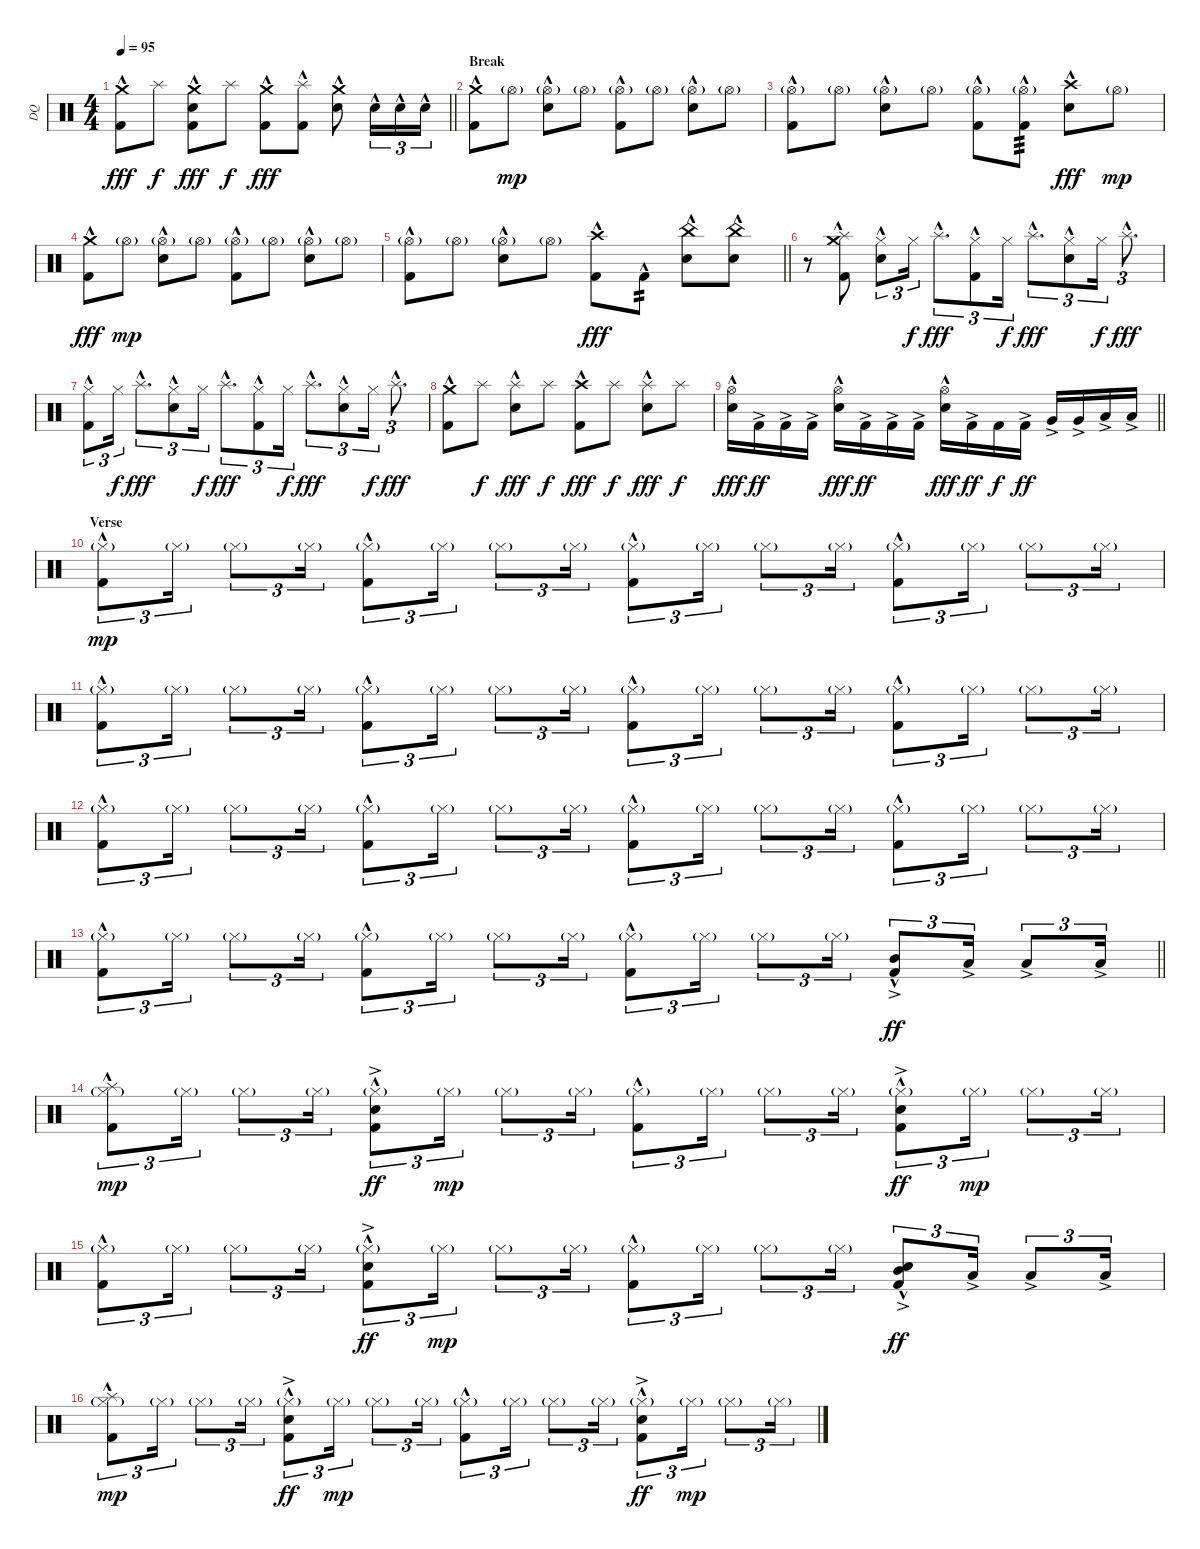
\track ("DQ" "DQ") {instrument percussion}
\staff {score}
\articulation defaults
\ts (4 4)
\tempo 95
\clef neutral
\barLineRight lightlight
\ks c
("Kick (hit) 2"{hac} "Crash medium (hit)").8{dy fff} "Splash (hit)".8{dy f} ("Kick (hit) 2"{hac} "Snare (hit) 2"{hac} "Crash medium (hit)").8{dy fff} "Splash (hit)".8{dy f} ("Kick (hit) 2"{hac} "Crash medium (hit)").8{dy fff} ("Kick (hit) 2"{hac} "Splash (hit)").8 ("Snare (hit) 2"{hac} "Crash medium (hit)").8 "Snare (hit) 2"{hac}.16{tu (3 2)} "Snare (hit) 2"{hac}.16{tu (3 2)} "Snare (hit) 2"{hac}.16{tu (3 2)} |
\section ("" "Break")
("Kick (hit) 2"{hac} "Crash medium (hit)").8 "Hi-Hat (open)"{g}.8{dy mp} ("Snare (hit) 2"{hac} "Hi-Hat (open)"{g}).8 "Hi-Hat (open)"{g}.8 ("Kick (hit) 2"{hac} "Hi-Hat (open)"{g}).8 "Hi-Hat (open)"{g}.8 ("Snare (hit) 2"{hac} "Hi-Hat (open)"{g}).8 "Hi-Hat (open)"{g}.8 |
("Kick (hit) 2"{hac} "Hi-Hat (open)"{g}).8 "Hi-Hat (open)"{g}.8 ("Snare (hit) 2"{hac} "Hi-Hat (open)"{g}).8 "Hi-Hat (open)"{g}.8 ("Kick (hit) 2"{hac} "Hi-Hat (open)"{g}).8 ("Kick (hit) 2"{hac} "Hi-Hat (open)"{g}).8{tp 3} ("Snare (hit) 2"{hac} "Crash high (hit)").8{dy fff} "Hi-Hat (open)"{g}.8{dy mp} |
("Kick (hit) 2"{hac} "Crash medium (hit)").8{dy fff} "Hi-Hat (open)"{g}.8{dy mp} ("Snare (hit) 2"{hac} "Hi-Hat (open)"{g}).8 "Hi-Hat (open)"{g}.8 ("Kick (hit) 2"{hac} "Hi-Hat (open)"{g}).8 "Hi-Hat (open)"{g}.8 ("Snare (hit) 2"{hac} "Hi-Hat (open)"{g}).8 "Hi-Hat (open)"{g}.8 |
\barLineRight lightlight
("Kick (hit) 2"{hac} "Hi-Hat (open)"{g}).8 "Hi-Hat (open)"{g}.8 ("Snare (hit) 2"{hac} "Hi-Hat (open)"{g}).8 "Hi-Hat (open)"{g}.8 ("Kick (hit) 2"{hac} "Crash high (hit)").8{dy fff} "Kick (hit) 2"{hac}.8{tp 2} ("Snare (hit) 2"{hac} "China (hit)").8 ("Snare (hit) 2"{hac} "China (hit)").8 |
\section ("" "")
r.8 ("Kick (hit) 2"{hac} "Splash (hit)" "Crash medium (hit)").8 ("Snare (hit) 2"{hac} "Hi-Hat (closed)").8{tu (3 2)} "Hi-Hat (closed)".16{tu (3 2) dy f} "Splash (hit)"{hac}.8{d tu (3 2) dy fff} ("Kick (hit) 2"{hac} "Hi-Hat (closed)").8{tu (3 2)} "Hi-Hat (closed)".16{tu (3 2) dy f} "Splash (hit)"{hac}.8{d tu (3 2) dy fff} ("Snare (hit) 2"{hac} "Hi-Hat (closed)").8{tu (3 2)} "Hi-Hat (closed)".16{tu (3 2) dy f} "Splash (hit)"{hac}.8{d tu (3 2) dy fff} |
("Kick (hit) 2"{hac} "Hi-Hat (closed)").8{tu (3 2)} "Hi-Hat (closed)".16{tu (3 2) dy f} "Splash (hit)"{hac}.8{d tu (3 2) dy fff} ("Snare (hit) 2"{hac} "Hi-Hat (closed)").8{tu (3 2)} "Hi-Hat (closed)".16{tu (3 2) dy f} "Splash (hit)"{hac}.8{d tu (3 2) dy fff} ("Kick (hit) 2"{hac} "Hi-Hat (closed)").8{tu (3 2)} "Hi-Hat (closed)".16{tu (3 2) dy f} "Splash (hit)"{hac}.8{d tu (3 2) dy fff} ("Snare (hit) 2"{hac} "Hi-Hat (closed)").8{tu (3 2)} "Hi-Hat (closed)".16{tu (3 2) dy f} "Splash (hit)"{hac}.8{d tu (3 2) dy fff} |
("Kick (hit) 2"{hac} "Crash medium (hit)").8 "Splash (hit)".8{dy f} ("Snare (hit) 2"{hac} "Splash (hit)").8{dy fff} "Splash (hit)".8{dy f} ("Kick (hit) 2"{hac} "Crash high (hit)").8{dy fff} "Splash (hit)".8{dy f} ("Snare (hit) 2"{hac} "Splash (hit)").8{dy fff} "Splash (hit)".8{dy f} |
\barLineRight lightlight
("Snare (hit) 2"{hac} "Hi-Hat (open)").16{dy fff} "Kick (hit) 2"{ac}.16{dy ff} "Kick (hit) 2"{ac}.16 "Kick (hit) 2"{ac}.16 ("Snare (hit) 2"{hac} "Hi-Hat (open)").16{dy fff} "Kick (hit) 2"{ac}.16{dy ff} "Kick (hit) 2"{ac}.16 "Kick (hit) 2"{ac}.16 ("Snare (hit) 2"{hac} "Hi-Hat (open)").16{dy fff} "Kick (hit) 2"{ac}.16{dy ff} "Kick (hit) 2".16{dy f} "Kick (hit) 2"{ac}.16{dy ff} "Very Low Tom (hit)"{ac}.16 "Very Low Tom (hit)"{ac}.16 "Low Floor Tom (hit)"{ac}.16 "Low Floor Tom (hit)"{ac}.16 |
\section ("" "Verse")
("Kick (hit) 2"{hac} "Hi-Hat (closed)"{g}).8{tu (3 2) dy mp} "Hi-Hat (closed)"{g}.16{tu (3 2)} "Hi-Hat (closed)"{g}.8{tu (3 2)} "Hi-Hat (closed)"{g}.16{tu (3 2)} ("Kick (hit) 2"{hac} "Hi-Hat (closed)"{g}).8{tu (3 2)} "Hi-Hat (closed)"{g}.16{tu (3 2)} "Hi-Hat (closed)"{g}.8{tu (3 2)} "Hi-Hat (closed)"{g}.16{tu (3 2)} ("Kick (hit) 2"{hac} "Hi-Hat (closed)"{g}).8{tu (3 2)} "Hi-Hat (closed)"{g}.16{tu (3 2)} "Hi-Hat (closed)"{g}.8{tu (3 2)} "Hi-Hat (closed)"{g}.16{tu (3 2)} ("Kick (hit) 2"{hac} "Hi-Hat (closed)"{g}).8{tu (3 2)} "Hi-Hat (closed)"{g}.16{tu (3 2)} "Hi-Hat (closed)"{g}.8{tu (3 2)} "Hi-Hat (closed)"{g}.16{tu (3 2)} |
("Kick (hit) 2"{hac} "Hi-Hat (closed)"{g}).8{tu (3 2)} "Hi-Hat (closed)"{g}.16{tu (3 2)} "Hi-Hat (closed)"{g}.8{tu (3 2)} "Hi-Hat (closed)"{g}.16{tu (3 2)} ("Kick (hit) 2"{hac} "Hi-Hat (closed)"{g}).8{tu (3 2)} "Hi-Hat (closed)"{g}.16{tu (3 2)} "Hi-Hat (closed)"{g}.8{tu (3 2)} "Hi-Hat (closed)"{g}.16{tu (3 2)} ("Kick (hit) 2"{hac} "Hi-Hat (closed)"{g}).8{tu (3 2)} "Hi-Hat (closed)"{g}.16{tu (3 2)} "Hi-Hat (closed)"{g}.8{tu (3 2)} "Hi-Hat (closed)"{g}.16{tu (3 2)} ("Kick (hit) 2"{hac} "Hi-Hat (closed)"{g}).8{tu (3 2)} "Hi-Hat (closed)"{g}.16{tu (3 2)} "Hi-Hat (closed)"{g}.8{tu (3 2)} "Hi-Hat (closed)"{g}.16{tu (3 2)} |
("Kick (hit) 2"{hac} "Hi-Hat (closed)"{g}).8{tu (3 2)} "Hi-Hat (closed)"{g}.16{tu (3 2)} "Hi-Hat (closed)"{g}.8{tu (3 2)} "Hi-Hat (closed)"{g}.16{tu (3 2)} ("Kick (hit) 2"{hac} "Hi-Hat (closed)"{g}).8{tu (3 2)} "Hi-Hat (closed)"{g}.16{tu (3 2)} "Hi-Hat (closed)"{g}.8{tu (3 2)} "Hi-Hat (closed)"{g}.16{tu (3 2)} ("Kick (hit) 2"{hac} "Hi-Hat (closed)"{g}).8{tu (3 2)} "Hi-Hat (closed)"{g}.16{tu (3 2)} "Hi-Hat (closed)"{g}.8{tu (3 2)} "Hi-Hat (closed)"{g}.16{tu (3 2)} ("Kick (hit) 2"{hac} "Hi-Hat (closed)"{g}).8{tu (3 2)} "Hi-Hat (closed)"{g}.16{tu (3 2)} "Hi-Hat (closed)"{g}.8{tu (3 2)} "Hi-Hat (closed)"{g}.16{tu (3 2)} |
\barLineRight lightlight
("Kick (hit) 2"{hac} "Hi-Hat (closed)"{g}).8{tu (3 2)} "Hi-Hat (closed)"{g}.16{tu (3 2)} "Hi-Hat (closed)"{g}.8{tu (3 2)} "Hi-Hat (closed)"{g}.16{tu (3 2)} ("Kick (hit) 2"{hac} "Hi-Hat (closed)"{g}).8{tu (3 2)} "Hi-Hat (closed)"{g}.16{tu (3 2)} "Hi-Hat (closed)"{g}.8{tu (3 2)} "Hi-Hat (closed)"{g}.16{tu (3 2)} ("Kick (hit) 2"{hac} "Hi-Hat (closed)"{g}).8{tu (3 2)} "Hi-Hat (closed)"{g}.16{tu (3 2)} "Hi-Hat (closed)"{g}.8{tu (3 2)} "Hi-Hat (closed)"{g}.16{tu (3 2)} ("Kick (hit) 2"{hac} "Mid Tom (hit)"{ac}).8{tu (3 2) dy ff} "Low Tom (hit)"{ac}.16{tu (3 2)} "Low Tom (hit)"{ac}.8{tu (3 2)} "Low Tom (hit)"{ac}.16{tu (3 2)} |
\section ("" "")
("Kick (hit) 2"{hac} "Hi-Hat (closed)"{g} "Splash (hit)").8{tu (3 2) dy mp} "Hi-Hat (closed)"{g}.16{tu (3 2)} "Hi-Hat (closed)"{g}.8{tu (3 2)} "Hi-Hat (closed)"{g}.16{tu (3 2)} ("Kick (hit) 2"{hac} "Hi-Hat (closed)"{g} "Snare (hit) 2"{ac}).8{tu (3 2) dy ff} "Hi-Hat (closed)"{g}.16{tu (3 2) dy mp} "Hi-Hat (closed)"{g}.8{tu (3 2)} "Hi-Hat (closed)"{g}.16{tu (3 2)} ("Kick (hit) 2"{hac} "Hi-Hat (closed)"{g}).8{tu (3 2)} "Hi-Hat (closed)"{g}.16{tu (3 2)} "Hi-Hat (closed)"{g}.8{tu (3 2)} "Hi-Hat (closed)"{g}.16{tu (3 2)} ("Kick (hit) 2"{hac} "Hi-Hat (closed)"{g} "Snare (hit) 2"{ac}).8{tu (3 2) dy ff} "Hi-Hat (closed)"{g}.16{tu (3 2) dy mp} "Hi-Hat (closed)"{g}.8{tu (3 2)} "Hi-Hat (closed)"{g}.16{tu (3 2)} |
("Kick (hit) 2"{hac} "Hi-Hat (closed)"{g}).8{tu (3 2)} "Hi-Hat (closed)"{g}.16{tu (3 2)} "Hi-Hat (closed)"{g}.8{tu (3 2)} "Hi-Hat (closed)"{g}.16{tu (3 2)} ("Kick (hit) 2"{hac} "Hi-Hat (closed)"{g} "Snare (hit) 2"{ac}).8{tu (3 2) dy ff} "Hi-Hat (closed)"{g}.16{tu (3 2) dy mp} "Hi-Hat (closed)"{g}.8{tu (3 2)} "Hi-Hat (closed)"{g}.16{tu (3 2)} ("Kick (hit) 2"{hac} "Hi-Hat (closed)"{g}).8{tu (3 2)} "Hi-Hat (closed)"{g}.16{tu (3 2)} "Hi-Hat (closed)"{g}.8{tu (3 2)} "Hi-Hat (closed)"{g}.16{tu (3 2)} ("Kick (hit) 2"{hac} "Mid Tom (hit)"{ac} "Snare (hit) 2"{ac}).8{tu (3 2) dy ff} "Low Tom (hit)"{ac}.16{tu (3 2)} "Low Tom (hit)"{ac}.8{tu (3 2)} "Low Tom (hit)"{ac}.16{tu (3 2)} |
("Kick (hit) 2"{hac} "Hi-Hat (closed)"{g} "Splash (hit)").8{tu (3 2) dy mp} "Hi-Hat (closed)"{g}.16{tu (3 2)} "Hi-Hat (closed)"{g}.8{tu (3 2)} "Hi-Hat (closed)"{g}.16{tu (3 2)} ("Kick (hit) 2"{hac} "Hi-Hat (closed)"{g} "Snare (hit) 2"{ac}).8{tu (3 2) dy ff} "Hi-Hat (closed)"{g}.16{tu (3 2) dy mp} "Hi-Hat (closed)"{g}.8{tu (3 2)} "Hi-Hat (closed)"{g}.16{tu (3 2)} ("Kick (hit) 2"{hac} "Hi-Hat (closed)"{g}).8{tu (3 2)} "Hi-Hat (closed)"{g}.16{tu (3 2)} "Hi-Hat (closed)"{g}.8{tu (3 2)} "Hi-Hat (closed)"{g}.16{tu (3 2)} ("Kick (hit) 2"{hac} "Hi-Hat (closed)"{g} "Snare (hit) 2"{ac}).8{tu (3 2) dy ff} "Hi-Hat (closed)"{g}.16{tu (3 2) dy mp} "Hi-Hat (closed)"{g}.8{tu (3 2)} "Hi-Hat (closed)"{g}.16{tu (3 2)}
